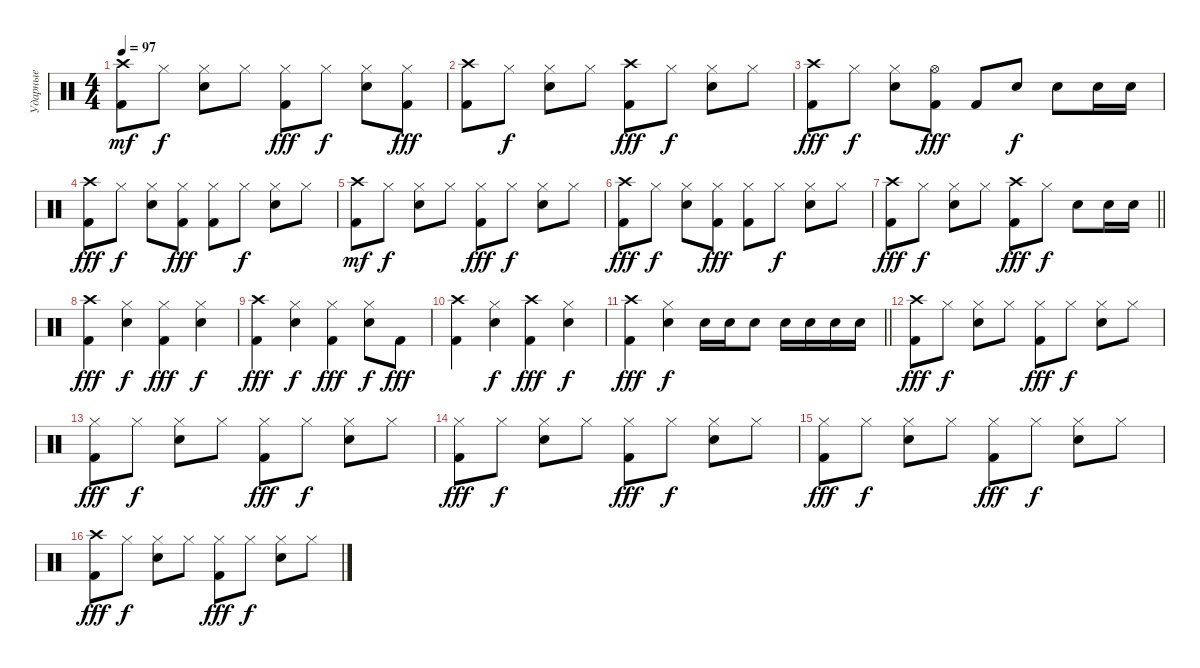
\track ("Ударные" "Ударные") {instrument percussion}
\staff {score}
\articulation defaults
\ts (4 4)
\tempo 97
\clef neutral
\ks c
("Kick (hit) 2" "Crash high (hit)").8{dy mf} "Hi-Hat (closed)".8{dy f} ("Snare (hit) 2" "Hi-Hat (closed)").8 "Hi-Hat (closed)".8 ("Kick (hit) 2" "Hi-Hat (closed)").8{dy fff} "Hi-Hat (closed)".8{dy f} ("Snare (hit) 2" "Hi-Hat (closed)").8 ("Kick (hit) 2" "Hi-Hat (closed)").8{dy fff} |
("Kick (hit) 2" "Crash high (hit)").8 "Hi-Hat (closed)".8{dy f} ("Snare (hit) 2" "Hi-Hat (closed)").8 "Hi-Hat (closed)".8 ("Kick (hit) 2" "Crash high (hit)").8{dy fff} "Hi-Hat (closed)".8{dy f} ("Snare (hit) 2" "Hi-Hat (closed)").8 "Hi-Hat (closed)".8 |
("Kick (hit) 2" "Crash high (hit)").8{dy fff} "Hi-Hat (closed)".8{dy f} ("Snare (hit) 2" "Hi-Hat (closed)").8 ("Kick (hit) 2" "Hi-Hat (open)").8{dy fff} "Kick (hit) 2".8 "Snare (hit) 2".8{dy f} "Snare (hit) 2".8 "Snare (hit) 2".16 "Snare (hit) 2".16 |
("Kick (hit) 2" "Crash high (hit)").8{dy fff} "Hi-Hat (closed)".8{dy f} ("Snare (hit) 2" "Hi-Hat (closed)").8 ("Kick (hit) 2" "Hi-Hat (closed)").8{dy fff} ("Kick (hit) 2" "Hi-Hat (closed)").8 "Hi-Hat (closed)".8{dy f} ("Snare (hit) 2" "Hi-Hat (closed)").8 "Hi-Hat (closed)".8 |
("Kick (hit) 2" "Crash high (hit)").8{dy mf} "Hi-Hat (closed)".8{dy f} ("Snare (hit) 2" "Hi-Hat (closed)").8 "Hi-Hat (closed)".8 ("Kick (hit) 2" "Hi-Hat (closed)").8{dy fff} "Hi-Hat (closed)".8{dy f} ("Snare (hit) 2" "Hi-Hat (closed)").8 "Hi-Hat (closed)".8 |
("Kick (hit) 2" "Crash high (hit)").8{dy fff} "Hi-Hat (closed)".8{dy f} ("Snare (hit) 2" "Hi-Hat (closed)").8 ("Kick (hit) 2" "Hi-Hat (closed)").8{dy fff} ("Kick (hit) 2" "Hi-Hat (closed)").8 "Hi-Hat (closed)".8{dy f} ("Snare (hit) 2" "Hi-Hat (closed)").8 "Hi-Hat (closed)".8 |
\barLineRight lightlight
("Kick (hit) 2" "Crash high (hit)").8{dy fff} "Hi-Hat (closed)".8{dy f} ("Snare (hit) 2" "Hi-Hat (closed)").8 "Hi-Hat (closed)".8 ("Kick (hit) 2" "Crash high (hit)").8{dy fff} "Hi-Hat (closed)".8{dy f} "Snare (hit) 2".8 "Snare (hit) 2".16 "Snare (hit) 2".16 |
("Kick (hit) 2" "Crash high (hit)").4{dy fff} ("Snare (hit) 2" "Hi-Hat (closed)").4{dy f} ("Kick (hit) 2" "Hi-Hat (closed)").4{dy fff} ("Snare (hit) 2" "Hi-Hat (closed)").4{dy f} |
("Kick (hit) 2" "Crash high (hit)").4{dy fff} ("Snare (hit) 2" "Hi-Hat (closed)").4{dy f} ("Kick (hit) 2" "Hi-Hat (closed)").4{dy fff} ("Snare (hit) 2" "Hi-Hat (closed)").8{dy f} "Kick (hit) 2".8{dy fff} |
("Kick (hit) 2" "Crash high (hit)").4 ("Snare (hit) 2" "Hi-Hat (closed)").4{dy f} ("Kick (hit) 2" "Crash high (hit)").4{dy fff} ("Snare (hit) 2" "Hi-Hat (closed)").4{dy f} |
\barLineRight lightlight
("Kick (hit) 2" "Crash high (hit)").4{dy fff} ("Snare (hit) 2" "Hi-Hat (closed)").4{dy f} "Electric Snare (hit)".16 "Electric Snare (hit)".16 "Electric Snare (hit)".8 "Electric Snare (hit)".16 "Electric Snare (hit)".16 "Electric Snare (hit)".16 "Electric Snare (hit)".16 |
("Kick (hit) 2" "Crash high (hit)").8{dy fff} "Hi-Hat (closed)".8{dy f} ("Snare (hit) 2" "Hi-Hat (closed)").8 "Hi-Hat (closed)".8 ("Kick (hit) 2" "Hi-Hat (closed)").8{dy fff} "Hi-Hat (closed)".8{dy f} ("Snare (hit) 2" "Hi-Hat (closed)").8 "Hi-Hat (closed)".8 |
("Kick (hit) 2" "Hi-Hat (closed)").8{dy fff} "Hi-Hat (closed)".8{dy f} ("Snare (hit) 2" "Hi-Hat (closed)").8 "Hi-Hat (closed)".8 ("Kick (hit) 2" "Hi-Hat (closed)").8{dy fff} "Hi-Hat (closed)".8{dy f} ("Snare (hit) 2" "Hi-Hat (closed)").8 "Hi-Hat (closed)".8 |
("Kick (hit) 2" "Hi-Hat (closed)").8{dy fff} "Hi-Hat (closed)".8{dy f} ("Snare (hit) 2" "Hi-Hat (closed)").8 "Hi-Hat (closed)".8 ("Kick (hit) 2" "Hi-Hat (closed)").8{dy fff} "Hi-Hat (closed)".8{dy f} ("Snare (hit) 2" "Hi-Hat (closed)").8 "Hi-Hat (closed)".8 |
("Kick (hit) 2" "Hi-Hat (closed)").8{dy fff} "Hi-Hat (closed)".8{dy f} ("Snare (hit) 2" "Hi-Hat (closed)").8 "Hi-Hat (closed)".8 ("Kick (hit) 2" "Hi-Hat (closed)").8{dy fff} "Hi-Hat (closed)".8{dy f} ("Snare (hit) 2" "Hi-Hat (closed)").8 "Hi-Hat (closed)".8 |
("Kick (hit) 2" "Crash high (hit)").8{dy fff} "Hi-Hat (closed)".8{dy f} ("Snare (hit) 2" "Hi-Hat (closed)").8 "Hi-Hat (closed)".8 ("Kick (hit) 2" "Hi-Hat (closed)").8{dy fff} "Hi-Hat (closed)".8{dy f} ("Snare (hit) 2" "Hi-Hat (closed)").8 "Hi-Hat (closed)".8
